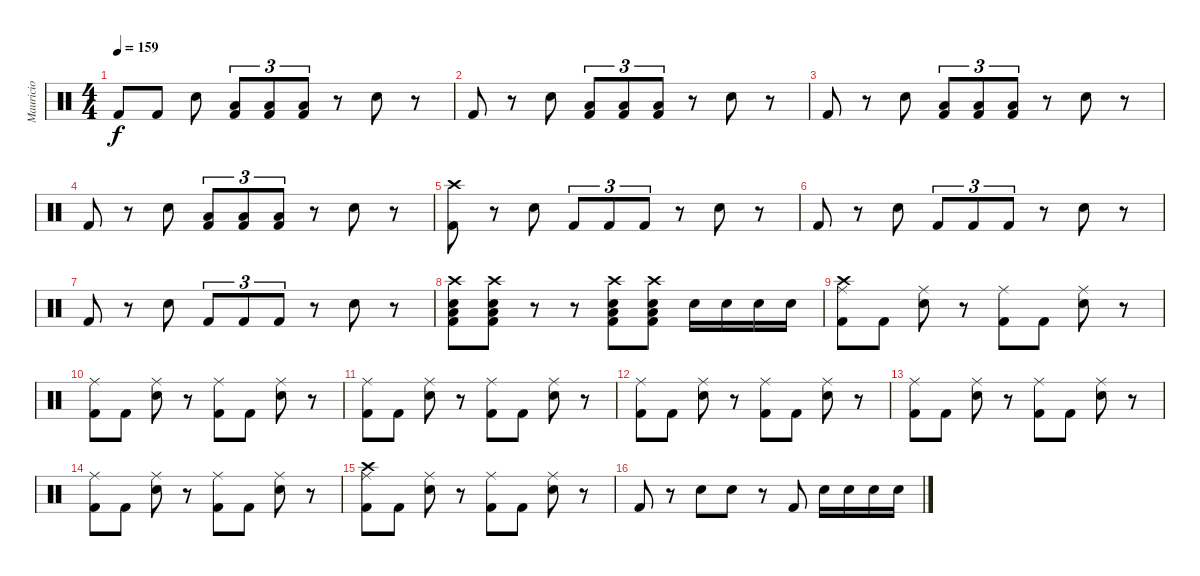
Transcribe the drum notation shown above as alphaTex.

\track ("Mauricio" "Mauricio") {instrument percussion}
\staff {score}
\articulation defaults
\ts (4 4)
\tempo 159
\clef neutral
\ks c "Kick (hit) 2".8{dy f} "Kick (hit) 2".8 "Snare (hit) 2".8
("Low Tom (hit)" "Kick (hit) 2").8{tu (3 2)} ("Low Tom (hit)" "Kick (hit) 2").8{tu (3 2)} ("Low Tom (hit)" "Kick (hit) 2").8{tu (3 2)} r.8 "Snare (hit) 2".8 r.8 |
"Kick (hit) 2".8 r.8 "Snare (hit) 2".8 ("Low Tom (hit)" "Kick (hit) 2").8{tu (3 2)} ("Low Tom (hit)" "Kick (hit) 2").8{tu (3 2)} ("Low Tom (hit)" "Kick (hit) 2").8{tu (3 2)} r.8 "Snare (hit) 2".8 r.8 |
"Kick (hit) 2".8 r.8 "Snare (hit) 2".8 ("Low Tom (hit)" "Kick (hit) 2").8{tu (3 2)} ("Low Tom (hit)" "Kick (hit) 2").8{tu (3 2)} ("Low Tom (hit)" "Kick (hit) 2").8{tu (3 2)} r.8 "Snare (hit) 2".8 r.8 |
"Kick (hit) 2".8 r.8 "Snare (hit) 2".8 ("Low Tom (hit)" "Kick (hit) 2").8{tu (3 2)} ("Low Tom (hit)" "Kick (hit) 2").8{tu (3 2)} ("Low Tom (hit)" "Kick (hit) 2").8{tu (3 2)} r.8 "Snare (hit) 2".8 r.8 |
("Crash high (hit)" "Kick (hit) 2").8 r.8 "Snare (hit) 2".8 "Kick (hit) 2".8{tu (3 2)} "Kick (hit) 2".8{tu (3 2)} "Kick (hit) 2".8{tu (3 2)} r.8 "Snare (hit) 2".8 r.8 |
"Kick (hit) 2".8 r.8 "Snare (hit) 2".8 "Kick (hit) 2".8{tu (3 2)} "Kick (hit) 2".8{tu (3 2)} "Kick (hit) 2".8{tu (3 2)} r.8 "Snare (hit) 2".8 r.8 |
"Kick (hit) 2".8 r.8 "Snare (hit) 2".8 "Kick (hit) 2".8{tu (3 2)} "Kick (hit) 2".8{tu (3 2)} "Kick (hit) 2".8{tu (3 2)} r.8 "Snare (hit) 2".8 r.8 |
("Crash high (hit)" "Low Tom (hit)" "Snare (hit) 2" "Kick (hit) 2").8 ("Crash high (hit)" "Low Tom (hit)" "Snare (hit) 2" "Kick (hit) 2").8 r.8 r.8 ("Crash high (hit)" "Low Tom (hit)" "Snare (hit) 2" "Kick (hit) 2").8 ("Crash high (hit)" "Low Tom (hit)" "Snare (hit) 2" "Kick (hit) 2").8 "Snare (hit) 2".16 "Snare (hit) 2".16 "Snare (hit) 2".16 "Snare (hit) 2".16 |
("Ride (middle)" "Crash high (hit)" "Kick (hit) 2").8 "Kick (hit) 2".8 ("Ride (middle)" "Snare (hit) 2").8 r.8 ("Ride (middle)" "Kick (hit) 2").8 "Kick (hit) 2".8 ("Ride (middle)" "Snare (hit) 2").8 r.8 |
("Ride (middle)" "Kick (hit) 2").8 "Kick (hit) 2".8 ("Ride (middle)" "Snare (hit) 2").8 r.8 ("Ride (middle)" "Kick (hit) 2").8 "Kick (hit) 2".8 ("Ride (middle)" "Snare (hit) 2").8 r.8 |
("Ride (middle)" "Kick (hit) 2").8 "Kick (hit) 2".8 ("Ride (middle)" "Snare (hit) 2").8 r.8 ("Ride (middle)" "Kick (hit) 2").8 "Kick (hit) 2".8 ("Ride (middle)" "Snare (hit) 2").8 r.8 |
("Ride (middle)" "Kick (hit) 2").8 "Kick (hit) 2".8 ("Ride (middle)" "Snare (hit) 2").8 r.8 ("Ride (middle)" "Kick (hit) 2").8 "Kick (hit) 2".8 ("Ride (middle)" "Snare (hit) 2").8 r.8 |
("Ride (middle)" "Kick (hit) 2").8 "Kick (hit) 2".8 ("Ride (middle)" "Snare (hit) 2").8 r.8 ("Ride (middle)" "Kick (hit) 2").8 "Kick (hit) 2".8 ("Ride (middle)" "Snare (hit) 2").8 r.8 |
("Ride (middle)" "Kick (hit) 2").8 "Kick (hit) 2".8 ("Ride (middle)" "Snare (hit) 2").8 r.8 ("Ride (middle)" "Kick (hit) 2").8 "Kick (hit) 2".8 ("Ride (middle)" "Snare (hit) 2").8 r.8 |
("Ride (middle)" "Crash high (hit)" "Kick (hit) 2").8 "Kick (hit) 2".8 ("Ride (middle)" "Snare (hit) 2").8 r.8 ("Ride (middle)" "Kick (hit) 2").8 "Kick (hit) 2".8 ("Ride (middle)" "Snare (hit) 2").8 r.8 |
"Kick (hit) 2".8 r.8 "Snare (hit) 2".8 "Snare (hit) 2".8 r.8 "Kick (hit) 2".8 "Snare (hit) 2".16 "Snare (hit) 2".16 "Snare (hit) 2".16 "Snare (hit) 2".16
